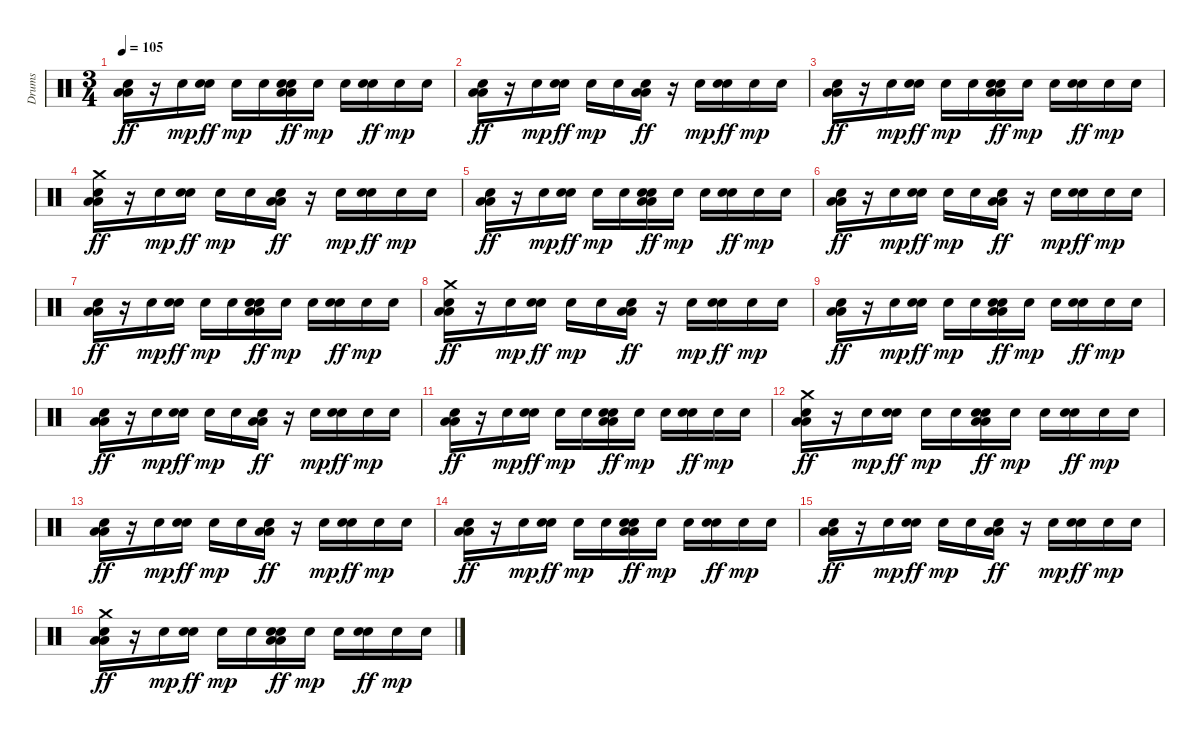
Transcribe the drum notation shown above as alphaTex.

\track ("Drums" "Drums") {instrument percussion}
\staff {score}
\articulation defaults
\ts (3 4)
\tempo 105
\clef neutral
\ks c
("Low Floor Tom (hit)" "Low Floor Tom (hit)" "Hand Clap (hit)").16{dy ff} r.16 "Snare (hit) 2".16{dy mp} ("Snare (hit) 2" "Hand Clap (hit)").16{dy ff} "Snare (hit) 2".16{dy mp} "Snare (hit) 2".16 ("Snare (hit) 2" "Low Floor Tom (hit)" "Low Floor Tom (hit)" "Hand Clap (hit)").16{dy ff} "Snare (hit) 2".16{dy mp} "Snare (hit) 2".16 ("Snare (hit) 2" "Hand Clap (hit)").16{dy ff} "Snare (hit) 2".16{dy mp} "Snare (hit) 2".16 |
("Low Floor Tom (hit)" "Low Floor Tom (hit)" "Hand Clap (hit)").16{dy ff} r.16 "Snare (hit) 2".16{dy mp} ("Snare (hit) 2" "Hand Clap (hit)").16{dy ff} "Snare (hit) 2".16{dy mp} "Snare (hit) 2".16 ("Low Floor Tom (hit)" "Low Floor Tom (hit)" "Hand Clap (hit)").16{dy ff} r.16 "Snare (hit) 2".16{dy mp} ("Snare (hit) 2" "Hand Clap (hit)").16{dy ff} "Snare (hit) 2".16{dy mp} "Snare (hit) 2".16 |
("Low Floor Tom (hit)" "Low Floor Tom (hit)" "Hand Clap (hit)").16{dy ff} r.16 "Snare (hit) 2".16{dy mp} ("Snare (hit) 2" "Hand Clap (hit)").16{dy ff} "Snare (hit) 2".16{dy mp} "Snare (hit) 2".16 ("Snare (hit) 2" "Low Floor Tom (hit)" "Low Floor Tom (hit)" "Hand Clap (hit)").16{dy ff} "Snare (hit) 2".16{dy mp} "Snare (hit) 2".16 ("Snare (hit) 2" "Hand Clap (hit)").16{dy ff} "Snare (hit) 2".16{dy mp} "Snare (hit) 2".16 |
("Low Floor Tom (hit)" "Low Floor Tom (hit)" "Hand Clap (hit)" "Crash medium (hit)").16{dy ff} r.16 "Snare (hit) 2".16{dy mp} ("Snare (hit) 2" "Hand Clap (hit)").16{dy ff} "Snare (hit) 2".16{dy mp} "Snare (hit) 2".16 ("Low Floor Tom (hit)" "Low Floor Tom (hit)" "Hand Clap (hit)").16{dy ff} r.16 "Snare (hit) 2".16{dy mp} ("Snare (hit) 2" "Hand Clap (hit)").16{dy ff} "Snare (hit) 2".16{dy mp} "Snare (hit) 2".16 |
("Low Floor Tom (hit)" "Low Floor Tom (hit)" "Hand Clap (hit)").16{dy ff} r.16 "Snare (hit) 2".16{dy mp} ("Snare (hit) 2" "Hand Clap (hit)").16{dy ff} "Snare (hit) 2".16{dy mp} "Snare (hit) 2".16 ("Snare (hit) 2" "Low Floor Tom (hit)" "Low Floor Tom (hit)" "Hand Clap (hit)").16{dy ff} "Snare (hit) 2".16{dy mp} "Snare (hit) 2".16 ("Snare (hit) 2" "Hand Clap (hit)").16{dy ff} "Snare (hit) 2".16{dy mp} "Snare (hit) 2".16 |
("Low Floor Tom (hit)" "Low Floor Tom (hit)" "Hand Clap (hit)").16{dy ff} r.16 "Snare (hit) 2".16{dy mp} ("Snare (hit) 2" "Hand Clap (hit)").16{dy ff} "Snare (hit) 2".16{dy mp} "Snare (hit) 2".16 ("Low Floor Tom (hit)" "Low Floor Tom (hit)" "Hand Clap (hit)").16{dy ff} r.16 "Snare (hit) 2".16{dy mp} ("Snare (hit) 2" "Hand Clap (hit)").16{dy ff} "Snare (hit) 2".16{dy mp} "Snare (hit) 2".16 |
("Low Floor Tom (hit)" "Low Floor Tom (hit)" "Hand Clap (hit)").16{dy ff} r.16 "Snare (hit) 2".16{dy mp} ("Snare (hit) 2" "Hand Clap (hit)").16{dy ff} "Snare (hit) 2".16{dy mp} "Snare (hit) 2".16 ("Snare (hit) 2" "Low Floor Tom (hit)" "Low Floor Tom (hit)" "Hand Clap (hit)").16{dy ff} "Snare (hit) 2".16{dy mp} "Snare (hit) 2".16 ("Snare (hit) 2" "Hand Clap (hit)").16{dy ff} "Snare (hit) 2".16{dy mp} "Snare (hit) 2".16 |
("Low Floor Tom (hit)" "Low Floor Tom (hit)" "Hand Clap (hit)" "Crash medium (hit)").16{dy ff} r.16 "Snare (hit) 2".16{dy mp} ("Snare (hit) 2" "Hand Clap (hit)").16{dy ff} "Snare (hit) 2".16{dy mp} "Snare (hit) 2".16 ("Low Floor Tom (hit)" "Low Floor Tom (hit)" "Hand Clap (hit)").16{dy ff} r.16 "Snare (hit) 2".16{dy mp} ("Snare (hit) 2" "Hand Clap (hit)").16{dy ff} "Snare (hit) 2".16{dy mp} "Snare (hit) 2".16 |
("Low Floor Tom (hit)" "Low Floor Tom (hit)" "Hand Clap (hit)").16{dy ff} r.16 "Snare (hit) 2".16{dy mp} ("Snare (hit) 2" "Hand Clap (hit)").16{dy ff} "Snare (hit) 2".16{dy mp} "Snare (hit) 2".16 ("Snare (hit) 2" "Low Floor Tom (hit)" "Low Floor Tom (hit)" "Hand Clap (hit)").16{dy ff} "Snare (hit) 2".16{dy mp} "Snare (hit) 2".16 ("Snare (hit) 2" "Hand Clap (hit)").16{dy ff} "Snare (hit) 2".16{dy mp} "Snare (hit) 2".16 |
("Low Floor Tom (hit)" "Low Floor Tom (hit)" "Hand Clap (hit)").16{dy ff} r.16 "Snare (hit) 2".16{dy mp} ("Snare (hit) 2" "Hand Clap (hit)").16{dy ff} "Snare (hit) 2".16{dy mp} "Snare (hit) 2".16 ("Low Floor Tom (hit)" "Low Floor Tom (hit)" "Hand Clap (hit)").16{dy ff} r.16 "Snare (hit) 2".16{dy mp} ("Snare (hit) 2" "Hand Clap (hit)").16{dy ff} "Snare (hit) 2".16{dy mp} "Snare (hit) 2".16 |
("Low Floor Tom (hit)" "Low Floor Tom (hit)" "Hand Clap (hit)").16{dy ff} r.16 "Snare (hit) 2".16{dy mp} ("Snare (hit) 2" "Hand Clap (hit)").16{dy ff} "Snare (hit) 2".16{dy mp} "Snare (hit) 2".16 ("Snare (hit) 2" "Low Floor Tom (hit)" "Low Floor Tom (hit)" "Hand Clap (hit)").16{dy ff} "Snare (hit) 2".16{dy mp} "Snare (hit) 2".16 ("Snare (hit) 2" "Hand Clap (hit)").16{dy ff} "Snare (hit) 2".16{dy mp} "Snare (hit) 2".16 |
("Low Floor Tom (hit)" "Low Floor Tom (hit)" "Hand Clap (hit)" "Crash medium (hit)").16{dy ff} r.16 "Snare (hit) 2".16{dy mp} ("Snare (hit) 2" "Hand Clap (hit)").16{dy ff} "Snare (hit) 2".16{dy mp} "Snare (hit) 2".16 ("Snare (hit) 2" "Low Floor Tom (hit)" "Low Floor Tom (hit)" "Hand Clap (hit)").16{dy ff} "Snare (hit) 2".16{dy mp} "Snare (hit) 2".16 ("Snare (hit) 2" "Hand Clap (hit)").16{dy ff} "Snare (hit) 2".16{dy mp} "Snare (hit) 2".16 |
("Low Floor Tom (hit)" "Low Floor Tom (hit)" "Hand Clap (hit)").16{dy ff} r.16 "Snare (hit) 2".16{dy mp} ("Snare (hit) 2" "Hand Clap (hit)").16{dy ff} "Snare (hit) 2".16{dy mp} "Snare (hit) 2".16 ("Low Floor Tom (hit)" "Low Floor Tom (hit)" "Hand Clap (hit)").16{dy ff} r.16 "Snare (hit) 2".16{dy mp} ("Snare (hit) 2" "Hand Clap (hit)").16{dy ff} "Snare (hit) 2".16{dy mp} "Snare (hit) 2".16 |
("Low Floor Tom (hit)" "Low Floor Tom (hit)" "Hand Clap (hit)").16{dy ff} r.16 "Snare (hit) 2".16{dy mp} ("Snare (hit) 2" "Hand Clap (hit)").16{dy ff} "Snare (hit) 2".16{dy mp} "Snare (hit) 2".16 ("Snare (hit) 2" "Low Floor Tom (hit)" "Low Floor Tom (hit)" "Hand Clap (hit)").16{dy ff} "Snare (hit) 2".16{dy mp} "Snare (hit) 2".16 ("Snare (hit) 2" "Hand Clap (hit)").16{dy ff} "Snare (hit) 2".16{dy mp} "Snare (hit) 2".16 |
("Low Floor Tom (hit)" "Low Floor Tom (hit)" "Hand Clap (hit)").16{dy ff} r.16 "Snare (hit) 2".16{dy mp} ("Snare (hit) 2" "Hand Clap (hit)").16{dy ff} "Snare (hit) 2".16{dy mp} "Snare (hit) 2".16 ("Low Floor Tom (hit)" "Low Floor Tom (hit)" "Hand Clap (hit)").16{dy ff} r.16 "Snare (hit) 2".16{dy mp} ("Snare (hit) 2" "Hand Clap (hit)").16{dy ff} "Snare (hit) 2".16{dy mp} "Snare (hit) 2".16 |
("Low Floor Tom (hit)" "Low Floor Tom (hit)" "Hand Clap (hit)" "Crash medium (hit)").16{dy ff} r.16 "Snare (hit) 2".16{dy mp} ("Snare (hit) 2" "Hand Clap (hit)").16{dy ff} "Snare (hit) 2".16{dy mp} "Snare (hit) 2".16 ("Snare (hit) 2" "Low Floor Tom (hit)" "Low Floor Tom (hit)" "Hand Clap (hit)").16{dy ff} "Snare (hit) 2".16{dy mp} "Snare (hit) 2".16 ("Snare (hit) 2" "Hand Clap (hit)").16{dy ff} "Snare (hit) 2".16{dy mp} "Snare (hit) 2".16
